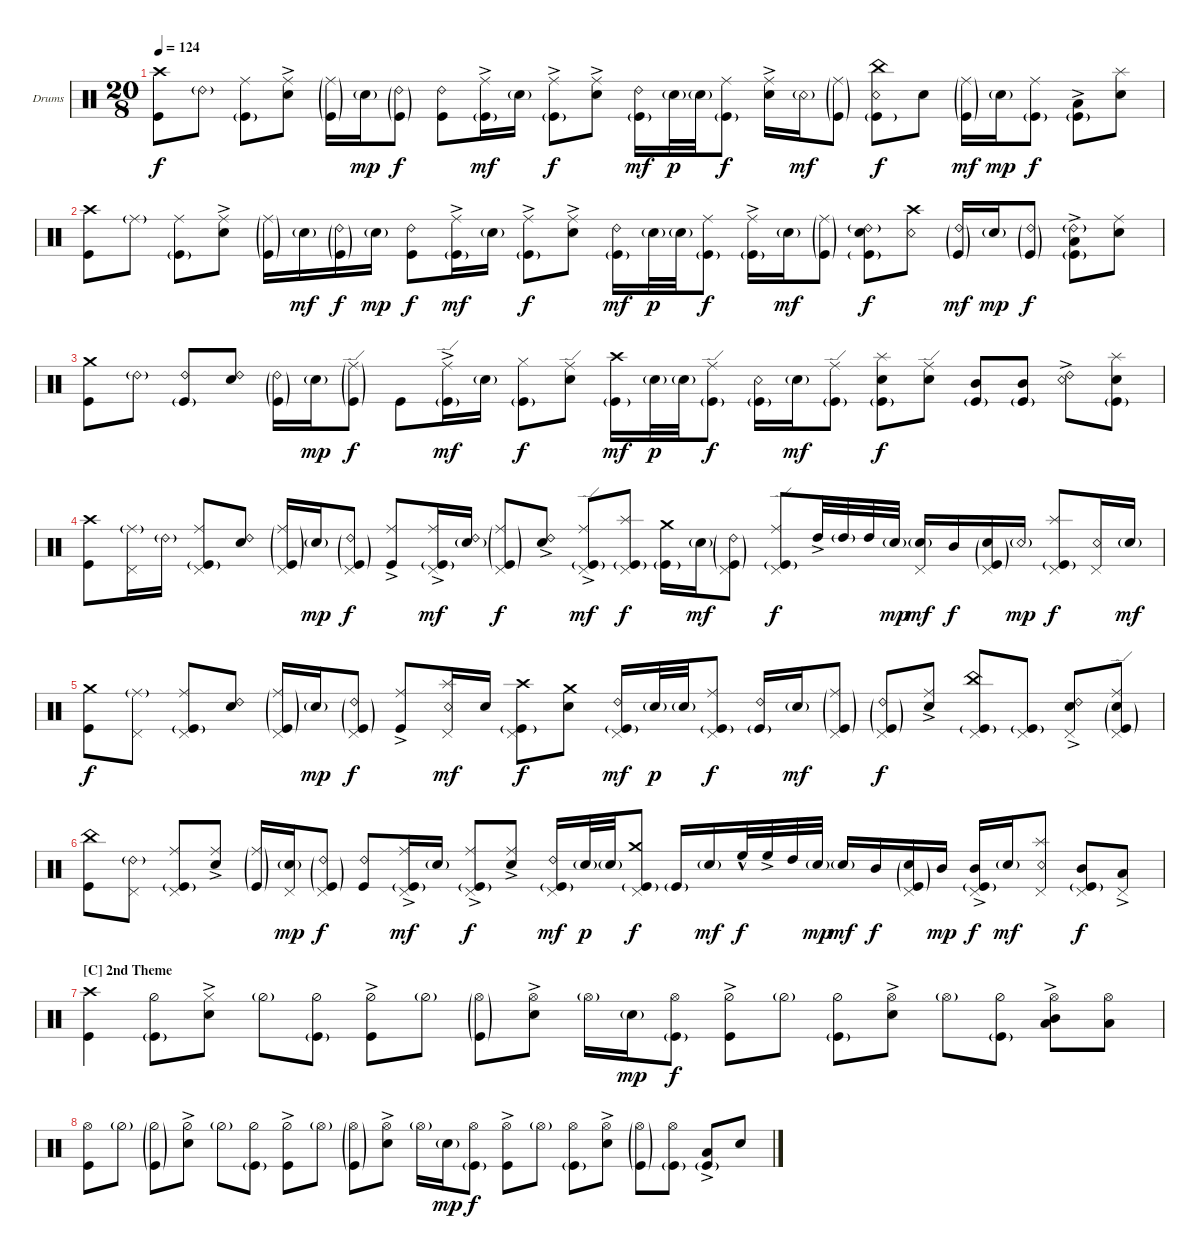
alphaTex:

\bracketExtendMode groupsimilarinstruments
\firstSystemTrackNameOrientation horizontal
\otherSystemsTrackNameOrientation horizontal
\track ("Drumkit" "Drums") {instrument percussion}
\staff {score}
\articulation defaults
\ts (20 8)
\tempo 124
\clef neutral
\ks c
("Kick (hit)" "Crash high (hit)").8{dy f} "Ride (bell) 2"{g}.8 ("Ride (middle)" "Kick (hit)"{g}).8 ("Ride (middle)"{ac} "Snare (hit) 2").8 ("Ride (middle)"{g} "Kick (hit)"{g}).16 "Snare (hit) 2"{g}.16{dy mp} ("Ride (bell) 2"{g} "Kick (hit)"{g}).8{dy f} ("Ride (bell) 2" "Kick (hit)").8 ("Ride (middle)"{ac} "Kick (hit)"{g}).16{dy mf} "Snare (hit) 2"{g}.16 ("Ride (middle)"{ac} "Kick (hit)"{g}).8{dy f} ("Ride (middle)"{ac} "Snare (hit) 2").8 ("Ride (bell) 2" "Kick (hit)"{g}).16{dy mf} "Snare (hit) 2"{g}.32{dy p} "Snare (hit) 2"{g}.32 ("Ride (middle)" "Kick (hit)"{g}).8{dy f} ("Ride (middle)"{ac} "Snare (hit) 2").16 "Snare (rim shot)"{g}.16{dy mf} ("Ride (middle)"{g} "Kick (hit)"{g}).8 ("Kick (hit)"{g} "Snare (rim shot)" "China (hit)").8{dy f} "Snare (hit) 2".8 ("Ride (middle)"{g} "Kick (hit)"{g}).16{dy mf} "Snare (hit) 2"{g}.16{dy mp} ("Ride (middle)" "Kick (hit)"{g}).8{dy f} ("Low Tom (hit)"{ac} "Kick (hit)"{g}).8 ("Snare (hit) 2" "Splash (hit)").8 |
("Kick (hit)" "Crash high (hit)").8 "Ride (middle)"{g}.8 ("Ride (middle)" "Kick (hit)"{g}).8 ("Ride (middle)"{ac} "Snare (hit) 2").8 ("Ride (middle)"{g} "Kick (hit)"{g}).16 "Snare (hit) 2"{g}.16{dy mf} ("Ride (bell) 2"{g} "Kick (hit)"{g}).16{dy f} "Snare (hit) 2"{g}.16{dy mp} ("Ride (bell) 2" "Kick (hit)").8{dy f} ("Ride (middle)"{ac} "Kick (hit)"{g}).16{dy mf} "Snare (hit) 2"{g}.16 ("Ride (middle)"{ac} "Kick (hit)"{g}).8{dy f} ("Ride (middle)"{ac} "Snare (hit) 2").8 ("Ride (bell) 2" "Kick (hit)"{g}).16{dy mf} "Snare (hit) 2"{g}.32{dy p} "Snare (hit) 2"{g}.32 ("Ride (middle)" "Kick (hit)"{g}).8{dy f} ("Ride (middle)"{ac} "Kick (hit)"{g}).16 "Snare (hit) 2"{g}.16{dy mf} ("Ride (middle)"{g} "Kick (hit)"{g}).8 ("Ride (bell) 2"{g} "Kick (hit)"{g} "Snare (hit) 2").8{dy f} ("Snare (rim shot)" "Crash high (hit)").8 ("Ride (bell) 2"{g} "Kick (hit)"{g}).16{dy mf} "Snare (hit) 2"{g}.16{dy mp} ("Ride (bell) 2"{g} "Kick (hit)"{g}).8{dy f} ("Low Tom (hit)"{ac} "Kick (hit)"{g} "Ride (bell) 2"{g}).8 ("Snare (hit) 2" "Ride (middle)").8 |
("Kick (hit)" "Crash medium (hit)").8 "Ride (bell) 2"{g}.8 ("Ride (bell) 2" "Kick (hit)"{g}).8 ("Ride (bell) 2" "Snare (hit) 2").8 ("Ride (bell) 2"{g} "Kick (hit)"{g}).16 "Snare (hit) 2"{g}.16{dy mp} ("Ride (edge)"{g} "Kick (hit)"{g}).8{dy f} "Kick (hit)".8 ("Ride (edge)"{ac} "Kick (hit)"{g}).16{dy mf} "Snare (hit) 2"{g}.16 ("Kick (hit)"{g} "Hi-Hat (closed)").8{dy f} ("Snare (hit) 2" "Ride (edge)").8 ("Kick (hit)"{g} "Crash high (hit)").16{dy mf} "Snare (hit) 2"{g}.32{dy p} "Snare (hit) 2"{g}.32 ("Ride (edge)" "Kick (hit)"{g}).8{dy f} ("Kick (hit)"{g} "Snare (rim shot)").16 "Snare (hit) 2"{g}.16{dy mf} ("Kick (hit)"{g} "Ride (edge)").8 ("Kick (hit)"{g} "Snare (hit) 2" "Splash (hit)").8{dy f} ("Snare (hit) 2" "Ride (edge)").8 ("Kick (hit)"{g} "Mid Tom (hit)").8 ("Kick (hit)"{g} "Mid Tom (hit)").8 ("Ride (bell) 2"{ac} "Snare (rim shot)").8 ("Snare (hit) 2" "Kick (hit)"{g} "Splash (hit)").8 |
("Kick (hit)" "Crash high (hit)").8 ("Ride (middle)"{g} "Pedal Hi-Hat (hit)").16 "Ride (bell) 2"{g}.16 ("Ride (middle)" "Kick (hit)"{g} "Pedal Hi-Hat (hit)").8 ("Ride (bell) 2" "Snare (hit) 2").8 ("Ride (middle)"{g} "Kick (hit)"{g} "Pedal Hi-Hat (hit)").16 "Snare (hit) 2"{g}.16{dy mp} ("Ride (bell) 2"{g} "Kick (hit)"{g} "Pedal Hi-Hat (hit)").8{dy f} ("Ride (middle)"{ac} "Kick (hit)").8 ("Ride (middle)"{ac} "Kick (hit)"{g} "Pedal Hi-Hat (hit)").16{dy mf} ("Snare (hit) 2"{g} "Ride (bell) 2").16 ("Ride (middle)"{g} "Kick (hit)"{g} "Pedal Hi-Hat (hit)").8{dy f} ("Ride (bell) 2"{ac} "Snare (hit) 2").8 ("Kick (hit)"{g} "Ride (edge)"{ac} "Pedal Hi-Hat (hit)").8{dy mf} ("Kick (hit)"{g} "Splash (hit)" "Pedal Hi-Hat (hit)").8{dy f} ("Kick (hit)"{g} "Crash medium (hit)").16 "Snare (hit) 2"{g}.16{dy mf} ("Ride (bell) 2"{g} "Kick (hit)"{g} "Pedal Hi-Hat (hit)").8 ("Kick (hit)"{g} "Ride (edge)" "Pedal Hi-Hat (hit)").8{dy f} "High Tom (hit)"{ac}.32 "High Tom (hit)"{g}.32 "High Tom (hit)".32 "Snare (hit) 2"{g}.32{dy mp} ("Snare (hit) 2"{g} "Pedal Hi-Hat (hit)").16{dy mf} "Mid Tom (hit)".16{dy f} ("Kick (hit)"{g} "Snare (hit) 2"{g} "Pedal Hi-Hat (hit)").16 "Snare (rim shot)"{g}.16{dy mp} ("Kick (hit)"{g} "Splash (hit)" "Pedal Hi-Hat (hit)").8{dy f} ("Snare (rim shot)" "Pedal Hi-Hat (hit)").16 "Snare (hit) 2"{g}.16{dy mf} |
("Kick (hit)" "Crash medium (hit)").8{dy f} ("Ride (middle)"{g} "Pedal Hi-Hat (hit)").8 ("Ride (middle)" "Kick (hit)"{g} "Pedal Hi-Hat (hit)").8 ("Ride (bell) 2" "Snare (hit) 2").8 ("Ride (middle)"{g} "Kick (hit)"{g} "Pedal Hi-Hat (hit)").16 "Snare (hit) 2"{g}.16{dy mp} ("Ride (bell) 2"{g} "Kick (hit)"{g} "Pedal Hi-Hat (hit)").8{dy f} ("Ride (middle)"{ac} "Kick (hit)").8 ("Splash (hit)" "Snare (rim shot)" "Pedal Hi-Hat (hit)").16{dy mf} "Snare (hit) 2".16 ("Kick (hit)"{g} "Crash high (hit)" "Pedal Hi-Hat (hit)").8{dy f} ("Snare (hit) 2" "Crash medium (hit)").8 ("Ride (bell) 2" "Kick (hit)"{g} "Pedal Hi-Hat (hit)").16{dy mf} "Snare (hit) 2"{g}.32{dy p} "Snare (hit) 2"{g}.32 ("Ride (middle)" "Kick (hit)"{g} "Pedal Hi-Hat (hit)").8{dy f} ("Ride (bell) 2" "Kick (hit)"{g}).16 "Snare (hit) 2"{g}.16{dy mf} ("Ride (middle)"{g} "Kick (hit)"{g} "Pedal Hi-Hat (hit)").8 ("Ride (bell) 2"{g} "Kick (hit)"{g} "Pedal Hi-Hat (hit)").8{dy f} ("Ride (middle)"{ac} "Snare (hit) 2").8 ("Kick (hit)"{g} "Pedal Hi-Hat (hit)" "China (hit)").8 ("Kick (hit)"{g} "Pedal Hi-Hat (hit)").8 ("Ride (bell) 2"{ac} "Snare (hit) 2" "Pedal Hi-Hat (hit)").8 ("Snare (hit) 2"{g} "Kick (hit)"{g} "Pedal Hi-Hat (hit)" "Ride (edge)").8 |
("Kick (hit)" "China (hit)").8 ("Ride (bell) 2"{g} "Pedal Hi-Hat (hit)").8 ("Ride (middle)" "Kick (hit)"{g} "Pedal Hi-Hat (hit)").8 ("Ride (middle)"{ac} "Snare (hit) 2").8 ("Ride (middle)"{g} "Kick (hit)"{g}).16 ("Snare (hit) 2"{g} "Pedal Hi-Hat (hit)").16{dy mp} ("Ride (bell) 2"{g} "Kick (hit)"{g} "Pedal Hi-Hat (hit)").8{dy f} ("Ride (bell) 2" "Kick (hit)").8 ("Ride (middle)"{ac} "Kick (hit)"{g} "Pedal Hi-Hat (hit)").16{dy mf} "Snare (hit) 2"{g}.16 ("Ride (middle)"{ac} "Kick (hit)"{g} "Pedal Hi-Hat (hit)").8{dy f} ("Ride (middle)"{ac} "Snare (hit) 2").8 ("Ride (bell) 2" "Kick (hit)"{g} "Pedal Hi-Hat (hit)").16{dy mf} "Snare (hit) 2"{g}.32{dy p} "Snare (hit) 2"{g}.32 ("Kick (hit)"{g} "Pedal Hi-Hat (hit)" "Crash medium (hit)").8{dy f} "Kick (hit)"{g}.16 "Snare (hit) 2"{g}.16{dy mf} "High Floor Tom (hit)"{hac}.32{dy f} "High Floor Tom (hit)"{ac}.32 "High Tom (hit)".32 "Snare (hit) 2"{g}.32{dy mp} "Snare (hit) 2"{g}.16{dy mf} "Mid Tom (hit)".16{dy f} ("Kick (hit)"{g} "Snare (hit) 2"{g} "Pedal Hi-Hat (hit)").16 "Mid Tom (hit)".16{dy mp} ("Kick (hit)"{g} "Pedal Hi-Hat (hit)" "Mid Tom (hit)"{ac}).16{dy f} "Snare (hit) 2"{g}.16{dy mf} ("Snare (rim shot)" "Pedal Hi-Hat (hit)" "Splash (hit)").8 ("Kick (hit)"{g} "Pedal Hi-Hat (hit)" "Mid Tom (hit)").8{dy f} ("Pedal Hi-Hat (hit)" "Low Tom (hit)"{ac}).8 |
\section ("C" "2nd Theme")
("Kick (hit)" "Crash high (hit)").4 ("Kick (hit)"{g} "Hi-Hat (half)").8 ("Snare (hit) 2" "Hi-Hat (closed)"{ac}).8 "Hi-Hat (half)"{g}.8 ("Kick (hit)"{g} "Hi-Hat (half)").8 ("Kick (hit)" "Hi-Hat (half)"{ac}).8 "Hi-Hat (half)"{g}.8 ("Kick (hit)"{g} "Hi-Hat (open)"{g}).8 ("Snare (hit) 2" "Hi-Hat (open)"{ac}).8 "Hi-Hat (open)"{g}.16 "Snare (hit) 2"{g}.16{dy mp} ("Kick (hit)"{g} "Hi-Hat (open)").8{dy f} ("Kick (hit)" "Hi-Hat (half)"{ac}).8 "Hi-Hat (half)"{g}.8 ("Kick (hit)"{g} "Hi-Hat (half)").8 ("Snare (hit) 2" "Hi-Hat (open)"{ac}).8 "Hi-Hat (open)"{g}.8 ("Kick (hit)"{g} "Hi-Hat (half)").8 ("Hi-Hat (open)"{ac} "Low Tom (hit)" "Mid Tom (hit)").8 ("Hi-Hat (open)" "Low Tom (hit)").8 |
("Kick (hit)" "Hi-Hat (open)").8 "Hi-Hat (half)"{g}.8 ("Kick (hit)"{g} "Hi-Hat (half)"{g}).8 ("Snare (hit) 2" "Hi-Hat (half)"{ac}).8 "Hi-Hat (half)"{g}.8 ("Kick (hit)"{g} "Hi-Hat (half)").8 ("Kick (hit)" "Hi-Hat (half)"{ac}).8 "Hi-Hat (open)"{g}.8 ("Kick (hit)"{g} "Hi-Hat (open)"{g}).8 ("Snare (hit) 2" "Hi-Hat (open)"{ac}).8 "Hi-Hat (open)"{g}.16 "Snare (hit) 2"{g}.16{dy mp} ("Kick (hit)"{g} "Hi-Hat (open)").8{dy f} ("Kick (hit)" "Hi-Hat (open)"{ac}).8 "Hi-Hat (open)"{g}.8 ("Kick (hit)"{g} "Hi-Hat (open)").8 ("Snare (hit) 2" "Hi-Hat (open)"{ac}).8 ("Kick (hit)"{g} "Hi-Hat (open)"{g}).8 ("Kick (hit)"{g} "Hi-Hat (open)").8 ("Low Tom (hit)"{ac} "Kick (hit)"{g}).8 "Snare (hit) 2".8
